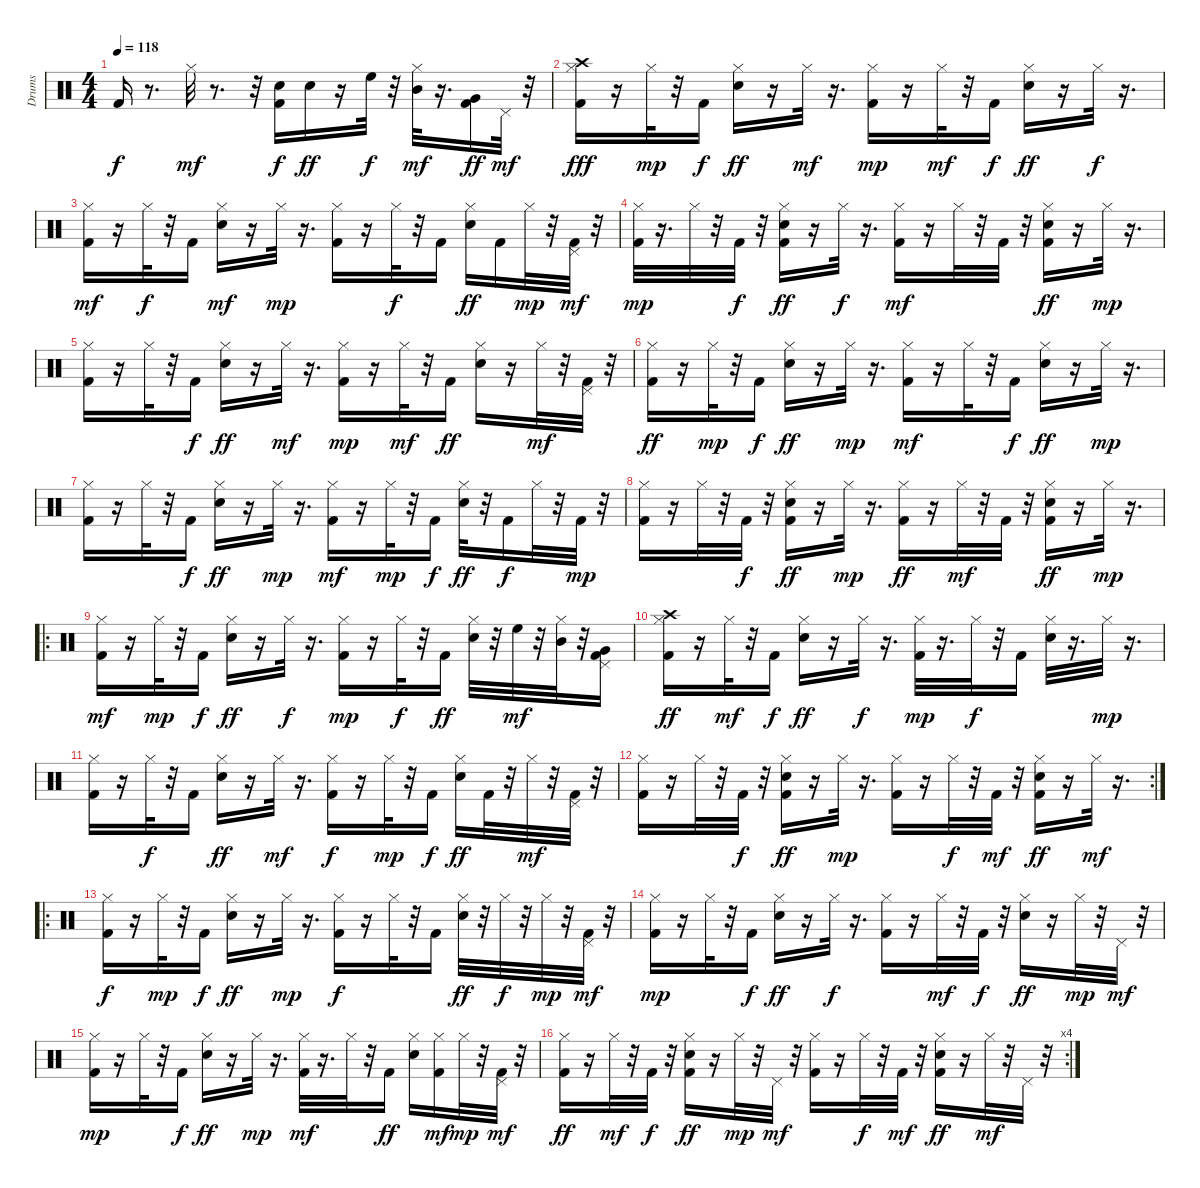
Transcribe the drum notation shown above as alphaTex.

\track ("Drums" "Drums") {instrument percussion}
\staff {score}
\articulation defaults
\ts (4 4)
\tempo 118
\clef neutral
\ks c "Kick (hit) 2".16{dy f}
r.8{d} "Hi-Hat (closed)".32{dy mf} r.8{d} r.32 ("Kick (hit) 2" "Electric Snare (hit)").16{dy f} "Electric Snare (hit)".16{dy ff} r.16 "High Floor Tom (hit)".32{dy f} r.32 ("Mid Tom (hit)" "Hi-Hat (closed)").32{dy mf} r.16{d} ("Kick (hit) 2" "Very Low Tom (hit)").16{dy ff} "Pedal Hi-Hat (hit)".32{dy mf} r.32 |
("Kick (hit) 2" "Hi-Hat (closed)" "Crash high (hit)").16{dy fff} r.16 "Hi-Hat (closed)".32{dy mp} r.32 "Kick (hit) 2".16{dy f} ("Hi-Hat (closed)" "Electric Snare (hit)").16{dy ff} r.16 "Hi-Hat (closed)".32{dy mf} r.16{d} ("Kick (hit) 2" "Hi-Hat (closed)").16{dy mp} r.16 "Hi-Hat (closed)".32{dy mf} r.32 "Kick (hit) 2".16{dy f} ("Hi-Hat (closed)" "Electric Snare (hit)").16{dy ff} r.16 "Hi-Hat (closed)".32{dy f} r.16{d} |
("Kick (hit) 2" "Hi-Hat (closed)").16{dy mf} r.16 "Hi-Hat (closed)".32{dy f} r.32 "Kick (hit) 2".16 ("Electric Snare (hit)" "Hi-Hat (closed)").16{dy mf} r.16 "Hi-Hat (closed)".32{dy mp} r.16{d} ("Kick (hit) 2" "Hi-Hat (closed)").16 r.16 "Hi-Hat (closed)".32{dy f} r.32 "Kick (hit) 2".16 ("Hi-Hat (closed)" "Electric Snare (hit)").16{dy ff} "Kick (hit) 2".16 "Hi-Hat (closed)".32{dy mp} r.32 ("Kick (hit) 2" "Pedal Hi-Hat (hit)").32{dy mf} r.32 |
("Kick (hit) 2" "Hi-Hat (closed)").32{dy mp} r.16{d} "Hi-Hat (closed)".32 r.32 "Kick (hit) 2".32{dy f} r.32 ("Kick (hit) 2" "Hi-Hat (closed)" "Electric Snare (hit)").16{dy ff} r.16 "Hi-Hat (closed)".32{dy f} r.16{d} ("Kick (hit) 2" "Hi-Hat (closed)").16{dy mf} r.16 "Hi-Hat (closed)".32 r.32 "Kick (hit) 2".32 r.32 ("Kick (hit) 2" "Hi-Hat (closed)" "Electric Snare (hit)").16{dy ff} r.16 "Hi-Hat (closed)".32{dy mp} r.16{d} |
("Hi-Hat (closed)" "Kick (hit) 2").16 r.16 "Hi-Hat (closed)".32 r.32 "Kick (hit) 2".16{dy f} ("Hi-Hat (closed)" "Electric Snare (hit)").16{dy ff} r.16 "Hi-Hat (closed)".32{dy mf} r.16{d} ("Kick (hit) 2" "Hi-Hat (closed)").16{dy mp} r.16 "Hi-Hat (closed)".32{dy mf} r.32 "Kick (hit) 2".16{dy ff} ("Hi-Hat (closed)" "Electric Snare (hit)").16 r.16 "Hi-Hat (closed)".32{dy mf} r.32 ("Kick (hit) 2" "Pedal Hi-Hat (hit)").32 r.32 |
("Kick (hit) 2" "Hi-Hat (closed)").16{dy ff} r.16 "Hi-Hat (closed)".32{dy mp} r.32 "Kick (hit) 2".16{dy f} ("Hi-Hat (closed)" "Electric Snare (hit)").16{dy ff} r.16 "Hi-Hat (closed)".32{dy mp} r.16{d} ("Kick (hit) 2" "Hi-Hat (closed)").16{dy mf} r.16 "Hi-Hat (closed)".32 r.32 "Kick (hit) 2".16{dy f} ("Hi-Hat (closed)" "Electric Snare (hit)").16{dy ff} r.16 "Hi-Hat (closed)".32{dy mp} r.16{d} |
("Kick (hit) 2" "Hi-Hat (closed)").16 r.16 "Hi-Hat (closed)".32 r.32 "Kick (hit) 2".16{dy f} ("Hi-Hat (closed)" "Electric Snare (hit)").16{dy ff} r.16 "Hi-Hat (closed)".32{dy mp} r.16{d} ("Kick (hit) 2" "Hi-Hat (closed)").16{dy mf} r.16 "Hi-Hat (closed)".32{dy mp} r.32 "Kick (hit) 2".16{dy f} ("Hi-Hat (closed)" "Electric Snare (hit)").32{dy ff} r.32 "Kick (hit) 2".16{dy f} "Hi-Hat (closed)".32 r.32 "Kick (hit) 2".32{dy mp} r.32 |
("Hi-Hat (closed)" "Kick (hit) 2").16 r.16 "Hi-Hat (closed)".32 r.32 "Kick (hit) 2".32{dy f} r.32 ("Kick (hit) 2" "Hi-Hat (closed)" "Electric Snare (hit)").16{dy ff} r.16 "Hi-Hat (closed)".32{dy mp} r.16{d} ("Hi-Hat (closed)" "Kick (hit) 2").16{dy ff} r.16 "Hi-Hat (closed)".32{dy mf} r.32 "Kick (hit) 2".32 r.32 ("Kick (hit) 2" "Hi-Hat (closed)" "Electric Snare (hit)").16{dy ff} r.16 "Hi-Hat (closed)".32{dy mp} r.16{d} |
\ro
("Kick (hit) 2" "Hi-Hat (closed)").16{dy mf} r.16 "Hi-Hat (closed)".32{dy mp} r.32 "Kick (hit) 2".16{dy f} ("Hi-Hat (closed)" "Electric Snare (hit)").16{dy ff} r.16 "Hi-Hat (closed)".32{dy f} r.16{d} ("Kick (hit) 2" "Hi-Hat (closed)").16{dy mp} r.16 "Hi-Hat (closed)".32{dy f} r.32 "Kick (hit) 2".16{dy ff} ("Hi-Hat (closed)" "Electric Snare (hit)").32 r.32 "High Floor Tom (hit)".32{dy mf} r.32 ("Hi-Hat (closed)" "Mid Tom (hit)").32 r.32 ("Pedal Hi-Hat (hit)" "Kick (hit) 2" "Very Low Tom (hit)").16 |
("Kick (hit) 2" "Hi-Hat (closed)" "Crash high (hit)").16{dy ff} r.16 "Hi-Hat (closed)".32{dy mf} r.32 "Kick (hit) 2".16{dy f} ("Hi-Hat (closed)" "Electric Snare (hit)").16{dy ff} r.16 "Hi-Hat (closed)".32{dy f} r.16{d} ("Kick (hit) 2" "Hi-Hat (closed)").32{dy mp} r.16{d} "Hi-Hat (closed)".32{dy f} r.32 "Kick (hit) 2".16 ("Hi-Hat (closed)" "Electric Snare (hit)").32 r.16{d} "Hi-Hat (closed)".32{dy mp} r.16{d} |
("Kick (hit) 2" "Hi-Hat (closed)").16 r.16 "Hi-Hat (closed)".32{dy f} r.32 "Kick (hit) 2".16 ("Hi-Hat (closed)" "Electric Snare (hit)").16{dy ff} r.16 "Hi-Hat (closed)".32{dy mf} r.16{d} ("Kick (hit) 2" "Hi-Hat (closed)").16{dy f} r.16 "Hi-Hat (closed)".32{dy mp} r.32 "Kick (hit) 2".16{dy f} ("Hi-Hat (closed)" "Electric Snare (hit)").16{dy ff} "Kick (hit) 2".32 r.32 "Hi-Hat (closed)".32{dy mf} r.32 ("Kick (hit) 2" "Pedal Hi-Hat (hit)").32 r.32 |
\rc 2
("Kick (hit) 2" "Hi-Hat (closed)").16 r.16 "Hi-Hat (closed)".32 r.32 "Kick (hit) 2".32{dy f} r.32 ("Hi-Hat (closed)" "Kick (hit) 2" "Electric Snare (hit)").16{dy ff} r.16 "Hi-Hat (closed)".32{dy mp} r.16{d} ("Kick (hit) 2" "Hi-Hat (closed)").16 r.16 "Hi-Hat (closed)".32{dy f} r.32 "Kick (hit) 2".32{dy mf} r.32 ("Kick (hit) 2" "Hi-Hat (closed)" "Electric Snare (hit)").16{dy ff} r.16 "Hi-Hat (closed)".32{dy mf} r.16{d} |
\ro
("Kick (hit) 2" "Hi-Hat (closed)").16{dy f} r.16 "Hi-Hat (closed)".32{dy mp} r.32 "Kick (hit) 2".16{dy f} ("Hi-Hat (closed)" "Electric Snare (hit)").16{dy ff} r.16 "Hi-Hat (closed)".32{dy mp} r.16{d} ("Kick (hit) 2" "Hi-Hat (closed)").16{dy f} r.16 "Hi-Hat (closed)".32 r.32 "Kick (hit) 2".16 ("Hi-Hat (closed)" "Electric Snare (hit)").32{dy ff} r.32 "Hi-Hat (closed)".32{dy f} r.32 "Hi-Hat (closed)".32{dy mp} r.32 ("Kick (hit) 2" "Pedal Hi-Hat (hit)").32{dy mf} r.32 |
("Hi-Hat (closed)" "Kick (hit) 2").16{dy mp} r.16 "Hi-Hat (closed)".32 r.32 "Kick (hit) 2".16{dy f} ("Hi-Hat (closed)" "Electric Snare (hit)").16{dy ff} r.16 "Hi-Hat (closed)".32{dy f} r.16{d} ("Kick (hit) 2" "Hi-Hat (closed)").16 r.16 "Hi-Hat (closed)".32{dy mf} r.32 "Kick (hit) 2".32{dy f} r.32 ("Electric Snare (hit)" "Hi-Hat (closed)").16{dy ff} r.16 "Hi-Hat (closed)".32{dy mp} r.32 "Pedal Hi-Hat (hit)".32{dy mf} r.32 |
("Kick (hit) 2" "Hi-Hat (closed)").16{dy mp} r.16 "Hi-Hat (closed)".32 r.32 "Kick (hit) 2".16{dy f} ("Hi-Hat (closed)" "Electric Snare (hit)").16{dy ff} r.16 "Hi-Hat (closed)".32{dy mp} r.16{d} ("Kick (hit) 2" "Hi-Hat (closed)").32{dy mf} r.16{d} "Hi-Hat (closed)".32 r.32 "Kick (hit) 2".16{dy ff} ("Hi-Hat (closed)" "Electric Snare (hit)").16 ("Kick (hit) 2" "Hi-Hat (closed)").16{dy mf} "Hi-Hat (closed)".32{dy mp} r.32 ("Kick (hit) 2" "Pedal Hi-Hat (hit)").32{dy mf} r.32 |
\rc 4
("Kick (hit) 2" "Hi-Hat (closed)").16{dy ff} r.16 "Hi-Hat (closed)".32{dy mf} r.32 "Kick (hit) 2".32{dy f} r.32 ("Kick (hit) 2" "Hi-Hat (closed)" "Electric Snare (hit)").16{dy ff} r.16 "Hi-Hat (closed)".32{dy mp} r.32 "Pedal Hi-Hat (hit)".32{dy mf} r.32 ("Kick (hit) 2" "Hi-Hat (closed)").16 r.16 "Hi-Hat (closed)".32{dy f} r.32 "Kick (hit) 2".32{dy mf} r.32 ("Kick (hit) 2" "Hi-Hat (closed)" "Electric Snare (hit)").16{dy ff} r.16 "Hi-Hat (closed)".32{dy mf} r.32 "Pedal Hi-Hat (hit)".32 r.32
